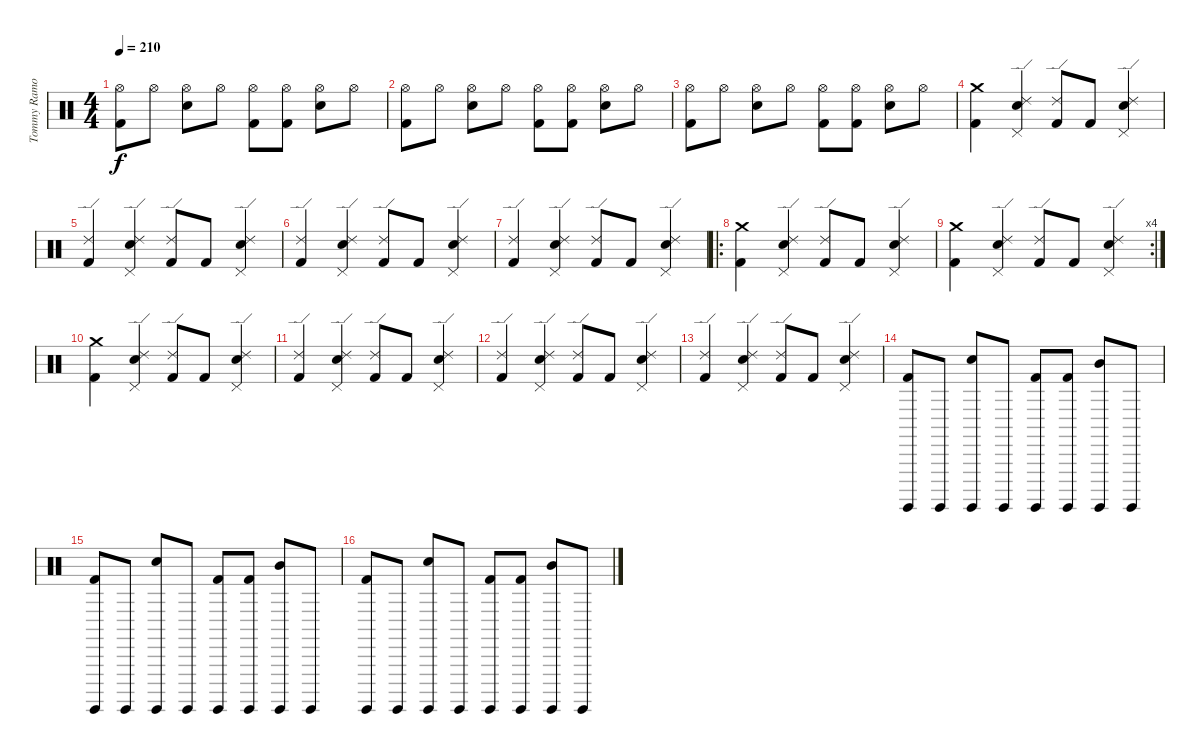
\track ("Tommy Ramone" "Tommy Ramo") {instrument percussion}
\staff {score}
\articulation defaults
\ts (4 4)
\tempo 210
\clef neutral
\ks c
("Hi-Hat (open)" "Kick (hit) 2").8{dy f} "Hi-Hat (open)".8 ("Hi-Hat (open)" "Snare (hit) 2").8 "Hi-Hat (open)".8 ("Hi-Hat (open)" "Kick (hit) 2").8 ("Hi-Hat (open)" "Kick (hit) 2").8 ("Hi-Hat (open)" "Snare (hit) 2").8 "Hi-Hat (open)".8 |
("Hi-Hat (open)" "Kick (hit) 2").8 "Hi-Hat (open)".8 ("Hi-Hat (open)" "Snare (hit) 2").8 "Hi-Hat (open)".8 ("Hi-Hat (open)" "Kick (hit) 2").8 ("Hi-Hat (open)" "Kick (hit) 2").8 ("Hi-Hat (open)" "Snare (hit) 2").8 "Hi-Hat (open)".8 |
("Hi-Hat (open)" "Kick (hit) 2").8 "Hi-Hat (open)".8 ("Hi-Hat (open)" "Snare (hit) 2").8 "Hi-Hat (open)".8 ("Hi-Hat (open)" "Kick (hit) 2").8 ("Hi-Hat (open)" "Kick (hit) 2").8 ("Hi-Hat (open)" "Snare (hit) 2").8 "Hi-Hat (open)".8 |
("Crash medium (hit)" "Kick (hit) 2").4 ("Ride (edge) 2" "Snare (hit) 2" "Pedal Hi-Hat (hit)").4 ("Ride (edge) 2" "Kick (hit) 2").8 "Kick (hit) 2".8 ("Ride (edge) 2" "Snare (hit) 2" "Pedal Hi-Hat (hit)").4 |
("Ride (edge) 2" "Kick (hit) 2").4 ("Ride (edge) 2" "Snare (hit) 2" "Pedal Hi-Hat (hit)").4 ("Ride (edge) 2" "Kick (hit) 2").8 "Kick (hit) 2".8 ("Ride (edge) 2" "Snare (hit) 2" "Pedal Hi-Hat (hit)").4 |
("Ride (edge) 2" "Kick (hit) 2").4 ("Ride (edge) 2" "Snare (hit) 2" "Pedal Hi-Hat (hit)").4 ("Ride (edge) 2" "Kick (hit) 2").8 "Kick (hit) 2".8 ("Ride (edge) 2" "Snare (hit) 2" "Pedal Hi-Hat (hit)").4 |
("Ride (edge) 2" "Kick (hit) 2").4 ("Ride (edge) 2" "Snare (hit) 2" "Pedal Hi-Hat (hit)").4 ("Ride (edge) 2" "Kick (hit) 2").8 "Kick (hit) 2".8 ("Ride (edge) 2" "Snare (hit) 2" "Pedal Hi-Hat (hit)").4 |
\ro
("Crash medium (hit)" "Kick (hit) 2").4 ("Ride (edge) 2" "Snare (hit) 2" "Pedal Hi-Hat (hit)").4 ("Ride (edge) 2" "Kick (hit) 2").8 "Kick (hit) 2".8 ("Ride (edge) 2" "Snare (hit) 2" "Pedal Hi-Hat (hit)").4 |
\rc 4
("Crash medium (hit)" "Kick (hit) 2").4 ("Ride (edge) 2" "Snare (hit) 2" "Pedal Hi-Hat (hit)").4 ("Ride (edge) 2" "Kick (hit) 2").8 "Kick (hit) 2".8 ("Ride (edge) 2" "Snare (hit) 2" "Pedal Hi-Hat (hit)").4 |
("Crash medium (hit)" "Kick (hit) 2").4 ("Ride (edge) 2" "Snare (hit) 2" "Pedal Hi-Hat (hit)").4 ("Ride (edge) 2" "Kick (hit) 2").8 "Kick (hit) 2".8 ("Ride (edge) 2" "Snare (hit) 2" "Pedal Hi-Hat (hit)").4 |
("Ride (edge) 2" "Kick (hit) 2").4 ("Ride (edge) 2" "Snare (hit) 2" "Pedal Hi-Hat (hit)").4 ("Ride (edge) 2" "Kick (hit) 2").8 "Kick (hit) 2".8 ("Ride (edge) 2" "Snare (hit) 2" "Pedal Hi-Hat (hit)").4 |
("Ride (edge) 2" "Kick (hit) 2").4 ("Ride (edge) 2" "Snare (hit) 2" "Pedal Hi-Hat (hit)").4 ("Ride (edge) 2" "Kick (hit) 2").8 "Kick (hit) 2".8 ("Ride (edge) 2" "Snare (hit) 2" "Pedal Hi-Hat (hit)").4 |
("Ride (edge) 2" "Kick (hit) 2").4 ("Ride (edge) 2" "Snare (hit) 2" "Pedal Hi-Hat (hit)").4 ("Ride (edge) 2" "Kick (hit) 2").8 "Kick (hit) 2".8 ("Ride (edge) 2" "Snare (hit) 2" "Pedal Hi-Hat (hit)").4 |
("Surdo (hit)" "Kick (hit) 2").8 "Surdo (hit)".8 ("Surdo (hit)" "Snare (hit) 2").8 "Surdo (hit)".8 ("Surdo (hit)" "Kick (hit) 2").8 ("Surdo (hit)" "Kick (hit) 2").8 ("Surdo (hit)" "Mid Tom (hit)").8 "Surdo (hit)".8 |
("Surdo (hit)" "Kick (hit) 2").8 "Surdo (hit)".8 ("Surdo (hit)" "Snare (hit) 2").8 "Surdo (hit)".8 ("Surdo (hit)" "Kick (hit) 2").8 ("Surdo (hit)" "Kick (hit) 2").8 ("Surdo (hit)" "Mid Tom (hit)").8 "Surdo (hit)".8 |
("Surdo (hit)" "Kick (hit) 2").8 "Surdo (hit)".8 ("Surdo (hit)" "Snare (hit) 2").8 "Surdo (hit)".8 ("Surdo (hit)" "Kick (hit) 2").8 ("Surdo (hit)" "Kick (hit) 2").8 ("Surdo (hit)" "Mid Tom (hit)").8 "Surdo (hit)".8
